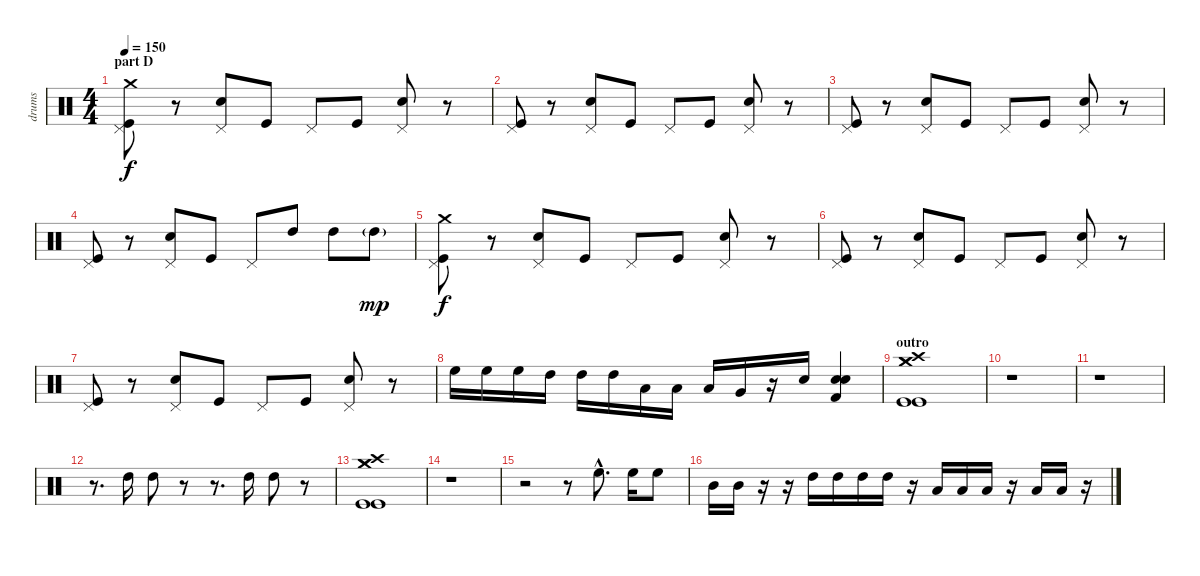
\track ("drums" "drums") {instrument percussion}
\staff {score}
\articulation defaults
\ts (4 4)
\section ("" "part D")
\tempo 150
\clef neutral
\ks c
("Pedal Hi-Hat (hit)" "Kick (hit)" "Crash medium (hit)").8{dy f} r.8 ("Pedal Hi-Hat (hit)" "Snare (hit) 2").8 "Kick (hit)".8 "Pedal Hi-Hat (hit)".8 "Kick (hit)".8 ("Pedal Hi-Hat (hit)" "Snare (hit) 2").8 r.8 |
("Pedal Hi-Hat (hit)" "Kick (hit)").8 r.8 ("Pedal Hi-Hat (hit)" "Snare (hit) 2").8 "Kick (hit)".8 "Pedal Hi-Hat (hit)".8 "Kick (hit)".8 ("Pedal Hi-Hat (hit)" "Snare (hit) 2").8 r.8 |
("Pedal Hi-Hat (hit)" "Kick (hit)").8 r.8 ("Pedal Hi-Hat (hit)" "Snare (hit) 2").8 "Kick (hit)".8 "Pedal Hi-Hat (hit)".8 "Kick (hit)".8 ("Pedal Hi-Hat (hit)" "Snare (hit) 2").8 r.8 |
("Pedal Hi-Hat (hit)" "Kick (hit)").8 r.8 ("Pedal Hi-Hat (hit)" "Snare (hit) 2").8 "Kick (hit)".8 "Pedal Hi-Hat (hit)".8 "High Tom (hit)".8 "High Tom (hit)".8 "High Tom (hit)"{g}.8{dy mp} |
("Pedal Hi-Hat (hit)" "Kick (hit)" "Crash medium (hit)").8{dy f} r.8 ("Pedal Hi-Hat (hit)" "Snare (hit) 2").8 "Kick (hit)".8 "Pedal Hi-Hat (hit)".8 "Kick (hit)".8 ("Pedal Hi-Hat (hit)" "Snare (hit) 2").8 r.8 |
("Pedal Hi-Hat (hit)" "Kick (hit)").8 r.8 ("Pedal Hi-Hat (hit)" "Snare (hit) 2").8 "Kick (hit)".8 "Pedal Hi-Hat (hit)".8 "Kick (hit)".8 ("Pedal Hi-Hat (hit)" "Snare (hit) 2").8 r.8 |
("Pedal Hi-Hat (hit)" "Kick (hit)").8 r.8 ("Pedal Hi-Hat (hit)" "Snare (hit) 2").8 "Kick (hit)".8 "Pedal Hi-Hat (hit)".8 "Kick (hit)".8 ("Pedal Hi-Hat (hit)" "Snare (hit) 2").8 r.8 |
"High Floor Tom (hit)".16 "High Floor Tom (hit)".16 "High Floor Tom (hit)".16 "High Tom (hit)".16 "High Tom (hit)".16 "High Tom (hit)".16 "Low Tom (hit)".16 "Low Tom (hit)".16 "Low Tom (hit)".16 "Very Low Tom (hit)".16 r.16 "Snare (hit) 2".16 ("Kick (hit) 2" "Snare (hit) 2" "Snare (hit) 2").4 |
\section ("" "outro")
("Crash high (hit)" "Kick (hit)" "Kick (hit)" "Crash medium (hit)" "Crash medium (hit)").1 |
r.1 |
r.1 |
r.8{d} "High Tom (hit)".16 "High Tom (hit)".8 r.8 r.8{d} "High Tom (hit)".16 "High Tom (hit)".8 r.8 |
("Crash high (hit)" "Kick (hit)" "Kick (hit)" "Crash medium (hit)" "Crash medium (hit)").1 |
r.1 |
r.2 r.8 "High Floor Tom (hit)"{hac}.8{d} "High Floor Tom (hit)".16 "High Floor Tom (hit)".8 |
"Mid Tom (hit)".16 "Mid Tom (hit)".16 r.16 r.16 "High Tom (hit)".16 "High Tom (hit)".16 "High Tom (hit)".16 "High Tom (hit)".16 r.16 "Low Tom (hit)".16 "Low Tom (hit)".16 "Low Tom (hit)".16 r.16 "Low Tom (hit)".16 "Low Tom (hit)".16 r.16
